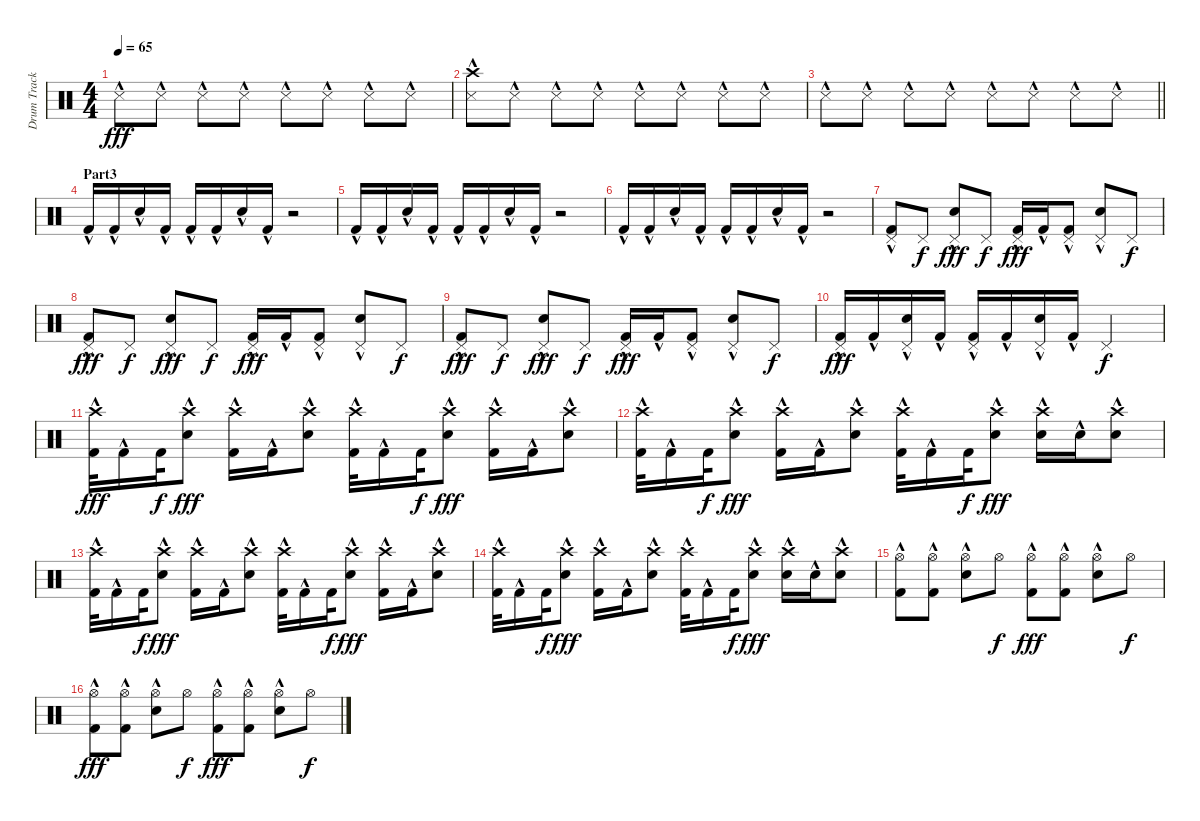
\track ("Drum Track" "Drum Track") {instrument percussion}
\staff {score}
\articulation defaults
\ts (4 4)
\tempo 65
\clef neutral
\ks c "Snare (side stick) 3"{hac}.8{dy fff} "Snare (side stick) 3"{hac}.8 "Snare (side stick) 3"{hac}.8 "Snare (side stick) 3"{hac}.8 "Snare (side stick) 3"{hac}.8 "Snare (side stick) 3"{hac}.8 "Snare (side stick) 3"{hac}.8 "Snare (side stick) 3"{hac}.8
|
("Crash high (hit)" "Snare (side stick) 3"{hac}).8 "Snare (side stick) 3"{hac}.8 "Snare (side stick) 3"{hac}.8 "Snare (side stick) 3"{hac}.8 "Snare (side stick) 3"{hac}.8 "Snare (side stick) 3"{hac}.8 "Snare (side stick) 3"{hac}.8 "Snare (side stick) 3"{hac}.8 |
\barLineRight lightlight "Snare (side stick) 3"{hac}.8 "Snare (side stick) 3"{hac}.8 "Snare (side stick) 3"{hac}.8 "Snare (side stick) 3"{hac}.8 "Snare (side stick) 3"{hac}.8 "Snare (side stick) 3"{hac}.8 "Snare (side stick) 3"{hac}.8 "Snare (side stick) 3"{hac}.8
|
\section ("" "Part3")
"Kick (hit) 2"{hac}.16 "Kick (hit) 2"{hac}.16 "Electric Snare (hit)"{hac}.16 "Kick (hit) 2"{hac}.16 "Kick (hit) 2"{hac}.16 "Kick (hit) 2"{hac}.16 "Electric Snare (hit)"{hac}.16 "Kick (hit) 2"{hac}.16 r.2 |
"Kick (hit) 2"{hac}.16 "Kick (hit) 2"{hac}.16 "Electric Snare (hit)"{hac}.16 "Kick (hit) 2"{hac}.16 "Kick (hit) 2"{hac}.16 "Kick (hit) 2"{hac}.16 "Electric Snare (hit)"{hac}.16 "Kick (hit) 2"{hac}.16 r.2 |
"Kick (hit) 2"{hac}.16 "Kick (hit) 2"{hac}.16 "Electric Snare (hit)"{hac}.16 "Kick (hit) 2"{hac}.16 "Kick (hit) 2"{hac}.16 "Kick (hit) 2"{hac}.16 "Electric Snare (hit)"{hac}.16 "Kick (hit) 2"{hac}.16 r.2 |
("Pedal Hi-Hat (hit)" "Kick (hit) 2"{hac}).8 "Pedal Hi-Hat (hit)".8{dy f} ("Pedal Hi-Hat (hit)" "Electric Snare (hit)"{hac}).8{dy fff} "Pedal Hi-Hat (hit)".8{dy f} ("Pedal Hi-Hat (hit)" "Kick (hit) 2"{hac}).16{dy fff} "Kick (hit) 2"{hac}.16 ("Pedal Hi-Hat (hit)" "Kick (hit) 2"{hac}).8 ("Pedal Hi-Hat (hit)" "Electric Snare (hit)"{hac}).8 "Pedal Hi-Hat (hit)".8{dy f} |
("Pedal Hi-Hat (hit)" "Kick (hit) 2"{hac}).8{dy fff} "Pedal Hi-Hat (hit)".8{dy f} ("Pedal Hi-Hat (hit)" "Electric Snare (hit)"{hac}).8{dy fff} "Pedal Hi-Hat (hit)".8{dy f} ("Pedal Hi-Hat (hit)" "Kick (hit) 2"{hac}).16{dy fff} "Kick (hit) 2"{hac}.16 ("Pedal Hi-Hat (hit)" "Kick (hit) 2"{hac}).8 ("Pedal Hi-Hat (hit)" "Electric Snare (hit)"{hac}).8 "Pedal Hi-Hat (hit)".8{dy f} |
("Pedal Hi-Hat (hit)" "Kick (hit) 2"{hac}).8{dy fff} "Pedal Hi-Hat (hit)".8{dy f} ("Pedal Hi-Hat (hit)" "Electric Snare (hit)"{hac}).8{dy fff} "Pedal Hi-Hat (hit)".8{dy f} ("Pedal Hi-Hat (hit)" "Kick (hit) 2"{hac}).16{dy fff} "Kick (hit) 2"{hac}.16 ("Pedal Hi-Hat (hit)" "Kick (hit) 2"{hac}).8 ("Pedal Hi-Hat (hit)" "Electric Snare (hit)"{hac}).8 "Pedal Hi-Hat (hit)".8{dy f} |
("Pedal Hi-Hat (hit)" "Kick (hit) 2"{hac}).16{dy fff} "Kick (hit) 2"{hac}.16 ("Pedal Hi-Hat (hit)" "Electric Snare (hit)"{hac}).16 "Kick (hit) 2"{hac}.16 ("Pedal Hi-Hat (hit)" "Kick (hit) 2"{hac}).16 "Kick (hit) 2"{hac}.16 ("Pedal Hi-Hat (hit)" "Electric Snare (hit)"{hac}).16 "Kick (hit) 2"{hac}.16 "Pedal Hi-Hat (hit)".2{dy f} |
("Crash high (hit)" "Kick (hit) 2"{hac}).32{dy fff} "Kick (hit) 2"{hac}.16 "Kick (hit) 2".32{dy f} ("Crash high (hit)" "Electric Snare (hit)"{hac}).8{dy fff} ("Crash high (hit)" "Kick (hit) 2"{hac}).16 "Kick (hit) 2"{hac}.16 ("Crash high (hit)" "Electric Snare (hit)"{hac}).8 ("Crash high (hit)" "Kick (hit) 2"{hac}).32 "Kick (hit) 2"{hac}.16 "Kick (hit) 2".32{dy f} ("Crash high (hit)" "Electric Snare (hit)"{hac}).8{dy fff} ("Crash high (hit)" "Kick (hit) 2"{hac}).16 "Kick (hit) 2"{hac}.16 ("Crash high (hit)" "Electric Snare (hit)"{hac}).8 |
("Crash high (hit)" "Kick (hit) 2"{hac}).32 "Kick (hit) 2"{hac}.16 "Kick (hit) 2".32{dy f} ("Crash high (hit)" "Electric Snare (hit)"{hac}).8{dy fff} ("Crash high (hit)" "Kick (hit) 2"{hac}).16 "Kick (hit) 2"{hac}.16 ("Crash high (hit)" "Electric Snare (hit)"{hac}).8 ("Crash high (hit)" "Kick (hit) 2"{hac}).32 "Kick (hit) 2"{hac}.16 "Kick (hit) 2".32{dy f} ("Crash high (hit)" "Electric Snare (hit)"{hac}).8{dy fff} ("Crash high (hit)" "Electric Snare (hit)"{hac}).16 "Electric Snare (hit)"{hac}.16 ("Crash high (hit)" "Electric Snare (hit)"{hac}).8 |
("Crash high (hit)" "Kick (hit) 2"{hac}).32 "Kick (hit) 2"{hac}.16 "Kick (hit) 2".32{dy f} ("Crash high (hit)" "Electric Snare (hit)"{hac}).8{dy fff} ("Crash high (hit)" "Kick (hit) 2"{hac}).16 "Kick (hit) 2"{hac}.16 ("Crash high (hit)" "Electric Snare (hit)"{hac}).8 ("Crash high (hit)" "Kick (hit) 2"{hac}).32 "Kick (hit) 2"{hac}.16 "Kick (hit) 2".32{dy f} ("Crash high (hit)" "Electric Snare (hit)"{hac}).8{dy fff} ("Crash high (hit)" "Kick (hit) 2"{hac}).16 "Kick (hit) 2"{hac}.16 ("Crash high (hit)" "Electric Snare (hit)"{hac}).8 |
("Crash high (hit)" "Kick (hit) 2"{hac}).32 "Kick (hit) 2"{hac}.16 "Kick (hit) 2".32{dy f} ("Crash high (hit)" "Electric Snare (hit)"{hac}).8{dy fff} ("Crash high (hit)" "Kick (hit) 2"{hac}).16 "Kick (hit) 2"{hac}.16 ("Crash high (hit)" "Electric Snare (hit)"{hac}).8 ("Crash high (hit)" "Kick (hit) 2"{hac}).32 "Kick (hit) 2"{hac}.16 "Kick (hit) 2".32{dy f} ("Crash high (hit)" "Electric Snare (hit)"{hac}).8{dy fff} ("Crash high (hit)" "Electric Snare (hit)"{hac}).16 "Electric Snare (hit)"{hac}.16 ("Crash high (hit)" "Electric Snare (hit)"{hac}).8 |
("Hi-Hat (open)" "Kick (hit) 2"{hac}).8 ("Hi-Hat (open)" "Kick (hit) 2"{hac}).8 ("Hi-Hat (open)" "Electric Snare (hit)"{hac}).8 "Hi-Hat (open)".8{dy f} ("Hi-Hat (open)" "Kick (hit) 2"{hac}).8{dy fff} ("Hi-Hat (open)" "Kick (hit) 2"{hac}).8 ("Hi-Hat (open)" "Electric Snare (hit)"{hac}).8 "Hi-Hat (open)".8{dy f} |
("Hi-Hat (open)" "Kick (hit) 2"{hac}).8{dy fff} ("Hi-Hat (open)" "Kick (hit) 2"{hac}).8 ("Hi-Hat (open)" "Electric Snare (hit)"{hac}).8 "Hi-Hat (open)".8{dy f} ("Hi-Hat (open)" "Kick (hit) 2"{hac}).8{dy fff} ("Hi-Hat (open)" "Kick (hit) 2"{hac}).8 ("Hi-Hat (open)" "Electric Snare (hit)"{hac}).8 "Hi-Hat (open)".8{dy f}
